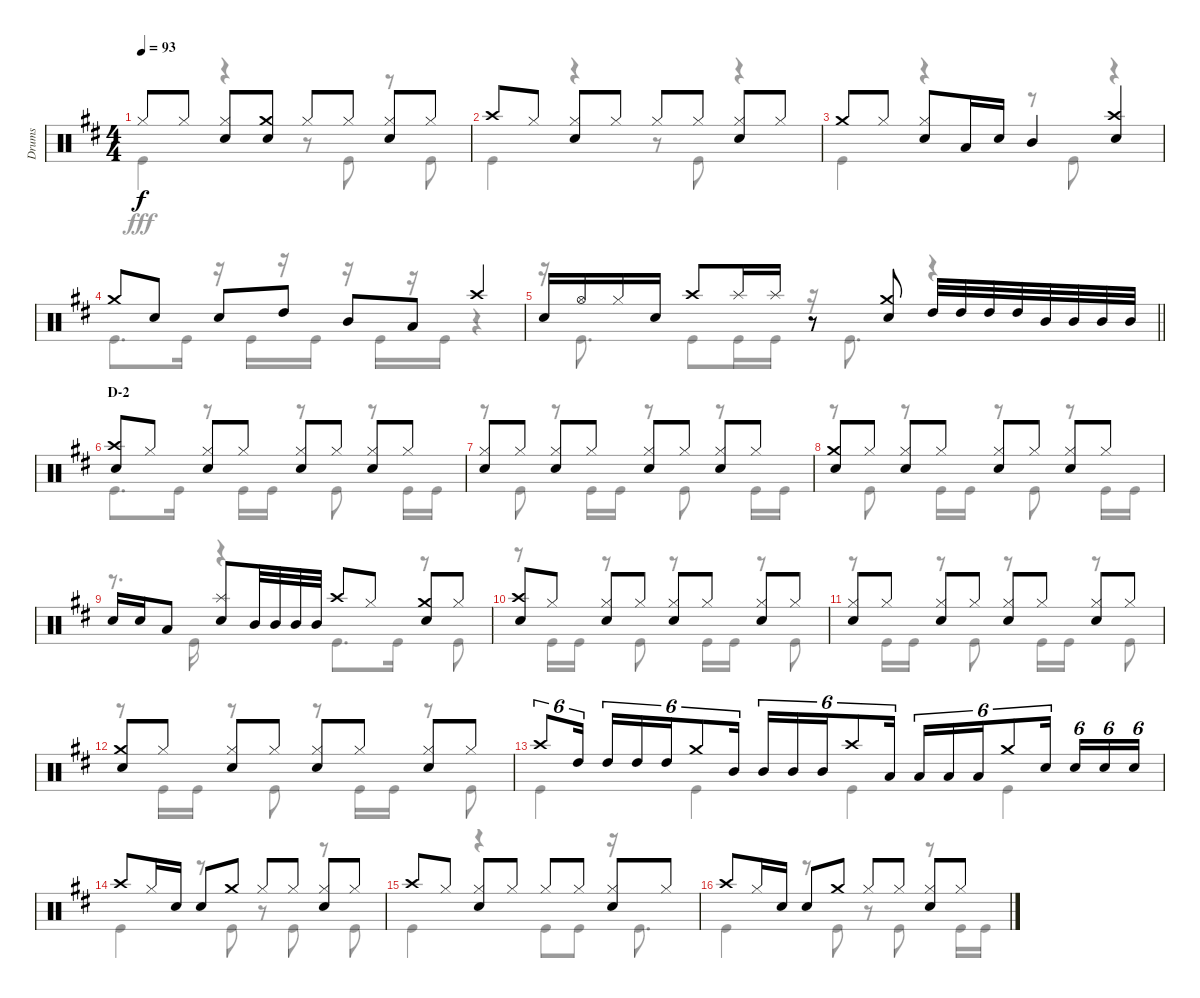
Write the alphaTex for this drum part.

\track ("Drums" "Drums") {instrument percussion}
\staff {score}
\articulation defaults
\voice
\ts (4 4)
\tempo 93
\clef neutral
\ks d "Hi-Hat (closed)".8{dy f} "Hi-Hat (closed)".8
("Hi-Hat (closed)" "Snare (hit) 2").8 ("Crash medium (hit)" "Snare (hit) 2").8 "Hi-Hat (closed)".8 "Hi-Hat (closed)".8 ("Hi-Hat (closed)" "Snare (hit) 2").8 "Hi-Hat (closed)".8 |
"Crash high (hit)".8 "Hi-Hat (closed)".8 ("Hi-Hat (closed)" "Snare (hit) 2").8 "Hi-Hat (closed)".8 "Hi-Hat (closed)".8 "Hi-Hat (closed)".8 ("Hi-Hat (closed)" "Snare (hit) 2").8 "Hi-Hat (closed)".8 |
"Crash medium (hit)".8 "Hi-Hat (closed)".8 ("Hi-Hat (closed)" "Snare (hit) 2").8 "Low Tom (hit)".16 "Snare (hit) 2".16 "Mid Tom (hit)".4 ("Snare (hit) 2" "Crash high (hit)").4 |
"Crash medium (hit)".8 "Snare (hit) 2".8 "Snare (hit) 2".8 "High Tom (hit)".8 "Mid Tom (hit)".8 "Low Tom (hit)".8 "Crash high (hit)".4 |
\barLineRight lightlight "Snare (hit) 2".16 "Hi-Hat (open)".16 "Hi-Hat (closed)".16 "Snare (hit) 2".16 "Crash high (hit)".8 "Splash (hit)".16 "Splash (hit)".16
r.8 ("Crash medium (hit)" "Snare (hit) 2").8 "High Tom (hit)".32 "High Tom (hit)".32 "High Tom (hit)".32 "High Tom (hit)".32 "Mid Tom (hit)".32 "Mid Tom (hit)".32 "Mid Tom (hit)".32 "Mid Tom (hit)".32 |
\section ("" "D-2")
("Crash high (hit)" "Snare (hit) 2").8 "Hi-Hat (closed)".8 ("Hi-Hat (closed)" "Snare (hit) 2").8 "Hi-Hat (closed)".8 ("Hi-Hat (closed)" "Snare (hit) 2").8 "Hi-Hat (closed)".8 ("Hi-Hat (closed)" "Snare (hit) 2").8 "Hi-Hat (closed)".8 |
("Hi-Hat (closed)" "Snare (hit) 2").8 "Hi-Hat (closed)".8 ("Hi-Hat (closed)" "Snare (hit) 2").8 "Hi-Hat (closed)".8 ("Hi-Hat (closed)" "Snare (hit) 2").8 "Hi-Hat (closed)".8 ("Hi-Hat (closed)" "Snare (hit) 2").8 "Hi-Hat (closed)".8 |
("Crash medium (hit)" "Snare (hit) 2").8 "Hi-Hat (closed)".8 ("Hi-Hat (closed)" "Snare (hit) 2").8 "Hi-Hat (closed)".8 ("Hi-Hat (closed)" "Snare (hit) 2").8 "Hi-Hat (closed)".8 ("Hi-Hat (closed)" "Snare (hit) 2").8 "Hi-Hat (closed)".8 |
"Snare (hit) 2".16 "Snare (hit) 2".16 "Low Tom (hit)".8 ("Splash (hit)" "Snare (hit) 2").8 "Mid Tom (hit)".32 "Mid Tom (hit)".32 "Mid Tom (hit)".32 "Mid Tom (hit)".32 "Crash high (hit)".8 "Hi-Hat (closed)".8 ("Crash medium (hit)" "Snare (hit) 2").8 "Hi-Hat (closed)".8 |
("Crash high (hit)" "Snare (hit) 2").8 "Hi-Hat (closed)".8 ("Hi-Hat (closed)" "Snare (hit) 2").8 "Hi-Hat (closed)".8 ("Hi-Hat (closed)" "Snare (hit) 2").8 "Hi-Hat (closed)".8 ("Hi-Hat (closed)" "Snare (hit) 2").8 "Hi-Hat (closed)".8 |
("Hi-Hat (closed)" "Snare (hit) 2").8 "Hi-Hat (closed)".8 ("Hi-Hat (closed)" "Snare (hit) 2").8 "Hi-Hat (closed)".8 ("Hi-Hat (closed)" "Snare (hit) 2").8 "Hi-Hat (closed)".8 ("Hi-Hat (closed)" "Snare (hit) 2").8 "Hi-Hat (closed)".8 |
("Crash medium (hit)" "Snare (hit) 2").8 "Hi-Hat (closed)".8 ("Hi-Hat (closed)" "Snare (hit) 2").8 "Hi-Hat (closed)".8 ("Hi-Hat (closed)" "Snare (hit) 2").8 "Hi-Hat (closed)".8 ("Hi-Hat (closed)" "Snare (hit) 2").8 "Hi-Hat (closed)".8 |
"Crash high (hit)".8{tu (6 4)} "High Tom (hit)".16{tu (6 4) beam splitsecondary} "High Tom (hit)".16{tu (6 4)} "High Tom (hit)".16{tu (6 4)} "High Tom (hit)".16{tu (6 4)} "Crash medium (hit)".8{tu (6 4)} "Mid Tom (hit)".16{tu (6 4) beam splitsecondary} "Mid Tom (hit)".16{tu (6 4)} "Mid Tom (hit)".16{tu (6 4)} "Mid Tom (hit)".16{tu (6 4)} "Crash high (hit)".8{tu (6 4)} "Low Tom (hit)".16{tu (6 4) beam splitsecondary} "Low Tom (hit)".16{tu (6 4)} "Low Tom (hit)".16{tu (6 4)} "Low Tom (hit)".16{tu (6 4)} "Crash medium (hit)".8{tu (6 4)} "Snare (hit) 2".16{tu (6 4) beam splitsecondary} "Snare (hit) 2".16{tu (6 4)} "Snare (hit) 2".16{tu (6 4)} "Snare (hit) 2".16{tu (6 4)} |
"Crash high (hit)".8 "Hi-Hat (closed)".16 "Snare (hit) 2".16 "Snare (hit) 2".8 "Crash medium (hit)".8 "Hi-Hat (closed)".8 "Hi-Hat (closed)".8 ("Hi-Hat (closed)" "Snare (hit) 2").8 "Hi-Hat (closed)".8 |
"Crash high (hit)".8 "Hi-Hat (closed)".8 ("Hi-Hat (closed)" "Snare (hit) 2").8 "Hi-Hat (closed)".8 "Hi-Hat (closed)".8 "Hi-Hat (closed)".8 ("Hi-Hat (closed)" "Snare (hit) 2").8 "Hi-Hat (closed)".8 |
"Crash high (hit)".8 "Hi-Hat (closed)".16 "Snare (hit) 2".16 "Snare (hit) 2".8 "Crash medium (hit)".8 "Hi-Hat (closed)".8 "Hi-Hat (closed)".8 ("Hi-Hat (closed)" "Snare (hit) 2").8 "Hi-Hat (closed)".8
\voice
\clef neutral
\ottava regular
\simile none
\ks d "Kick (hit)".4{dy fff}
r.4 r.8 "Kick (hit)".8 r.8 "Kick (hit)".8 |
"Kick (hit)".4 r.4 r.8 "Kick (hit)".8 r.4 |
"Kick (hit)".4 r.4 r.8 "Kick (hit)".8 r.4 |
"Kick (hit)".8{d} "Kick (hit)".16 r.16 "Kick (hit)".16 r.16 "Kick (hit)".16 r.16 "Kick (hit)".16 r.16 "Kick (hit)".16 r.4 |
\barLineRight lightlight
r.16 "Kick (hit)".8{d} "Kick (hit)".8 "Kick (hit)".16 "Kick (hit)".16 r.16 "Kick (hit)".8{d} r.4 |
"Kick (hit)".8{d} "Kick (hit)".16 r.8 "Kick (hit)".16 "Kick (hit)".16 r.8 "Kick (hit)".8 r.8 "Kick (hit)".16 "Kick (hit)".16 |
r.8 "Kick (hit)".8 r.8 "Kick (hit)".16 "Kick (hit)".16 r.8 "Kick (hit)".8 r.8 "Kick (hit)".16 "Kick (hit)".16 |
r.8 "Kick (hit)".8 r.8 "Kick (hit)".16 "Kick (hit)".16 r.8 "Kick (hit)".8 r.8 "Kick (hit)".16 "Kick (hit)".16 |
r.8{d} "Kick (hit)".16 r.4 "Kick (hit)".8{d} "Kick (hit)".16 r.8 "Kick (hit)".8 |
r.8 "Kick (hit)".16 "Kick (hit)".16 r.8 "Kick (hit)".8 r.8 "Kick (hit)".16 "Kick (hit)".16 r.8 "Kick (hit)".8 |
r.8 "Kick (hit)".16 "Kick (hit)".16 r.8 "Kick (hit)".8 r.8 "Kick (hit)".16 "Kick (hit)".16 r.8 "Kick (hit)".8 |
r.8 "Kick (hit)".16 "Kick (hit)".16 r.8 "Kick (hit)".8 r.8 "Kick (hit)".16 "Kick (hit)".16 r.8 "Kick (hit)".8 |
"Kick (hit)".4 "Kick (hit)".4 "Kick (hit)".4 "Kick (hit)".4 |
"Kick (hit)".4 r.8 "Kick (hit)".8 r.8 "Kick (hit)".8 r.8 "Kick (hit)".8 |
"Kick (hit)".4 r.4 "Kick (hit)".8 "Kick (hit)".8 r.16 "Kick (hit)".8{d} |
"Kick (hit)".4 r.8 "Kick (hit)".8 r.8 "Kick (hit)".8 r.8 "Kick (hit)".16 "Kick (hit)".16
